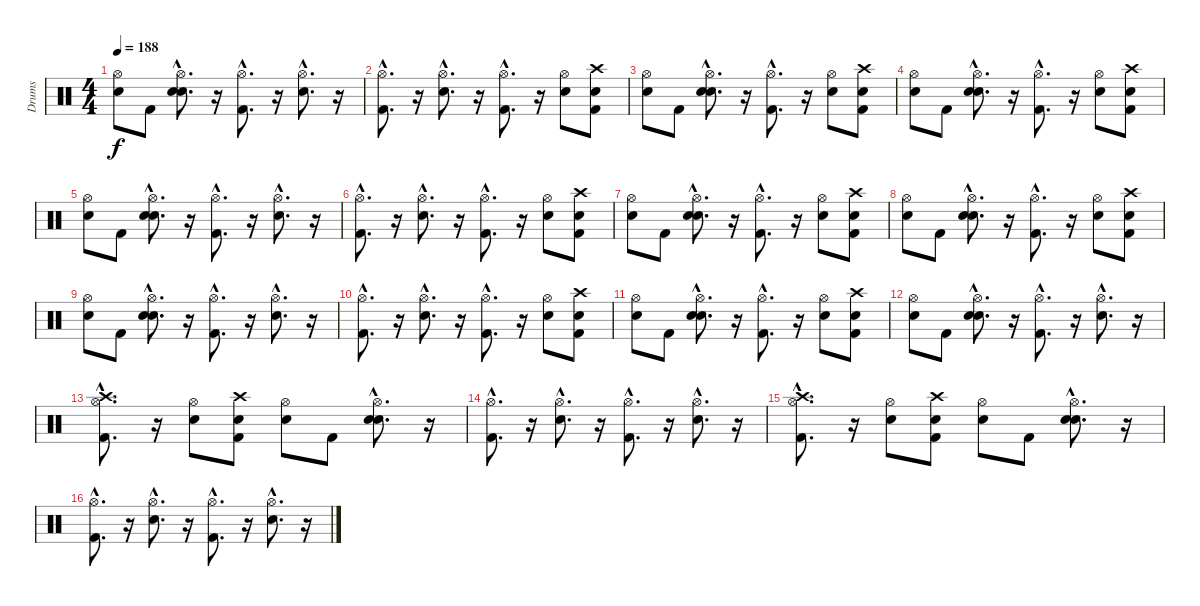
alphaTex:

\track ("Drums" "Drums") {instrument percussion}
\staff {score}
\articulation defaults
\ts (4 4)
\tempo 188
\clef neutral
\ks c
("Snare (hit)" "Hi-Hat (open)").8{dy f} "Kick (hit) 2".8 ("Snare (hit)"{hac} "Snare (hit) 2"{hac} "Hi-Hat (open)"{hac}).8{d} r.16 ("Kick (hit) 2"{hac} "Hi-Hat (open)"{hac}).8{d} r.16 ("Snare (hit) 2"{hac} "Hi-Hat (open)"{hac}).8{d} r.16 |
("Kick (hit) 2"{hac} "Hi-Hat (open)"{hac}).8{d} r.16 ("Snare (hit) 2"{hac} "Hi-Hat (open)"{hac}).8{d} r.16 ("Kick (hit) 2"{hac} "Hi-Hat (open)"{hac}).8{d} r.16 ("Snare (hit) 2" "Hi-Hat (open)").8 ("Snare (hit)" "Kick (hit) 2" "Crash high (hit)").8 |
("Snare (hit)" "Hi-Hat (open)").8 "Kick (hit) 2".8 ("Snare (hit)"{hac} "Snare (hit) 2"{hac} "Hi-Hat (open)"{hac}).8{d} r.16 ("Kick (hit) 2"{hac} "Hi-Hat (open)"{hac}).8{d} r.16 ("Snare (hit) 2" "Hi-Hat (open)").8 ("Snare (hit)" "Kick (hit) 2" "Crash high (hit)").8 |
("Snare (hit)" "Hi-Hat (open)").8 "Kick (hit) 2".8 ("Snare (hit)"{hac} "Snare (hit) 2"{hac} "Hi-Hat (open)"{hac}).8{d} r.16 ("Kick (hit) 2"{hac} "Hi-Hat (open)"{hac}).8{d} r.16 ("Snare (hit) 2" "Hi-Hat (open)").8 ("Snare (hit)" "Kick (hit) 2" "Crash high (hit)").8 |
("Snare (hit)" "Hi-Hat (open)").8 "Kick (hit) 2".8 ("Snare (hit)"{hac} "Snare (hit) 2"{hac} "Hi-Hat (open)"{hac}).8{d} r.16 ("Kick (hit) 2"{hac} "Hi-Hat (open)"{hac}).8{d} r.16 ("Snare (hit) 2"{hac} "Hi-Hat (open)"{hac}).8{d} r.16 |
("Kick (hit) 2"{hac} "Hi-Hat (open)"{hac}).8{d} r.16 ("Snare (hit) 2"{hac} "Hi-Hat (open)"{hac}).8{d} r.16 ("Kick (hit) 2"{hac} "Hi-Hat (open)"{hac}).8{d} r.16 ("Snare (hit) 2" "Hi-Hat (open)").8 ("Snare (hit)" "Kick (hit) 2" "Crash high (hit)").8 |
("Snare (hit)" "Hi-Hat (open)").8 "Kick (hit) 2".8 ("Snare (hit)"{hac} "Snare (hit) 2"{hac} "Hi-Hat (open)"{hac}).8{d} r.16 ("Kick (hit) 2"{hac} "Hi-Hat (open)"{hac}).8{d} r.16 ("Snare (hit) 2" "Hi-Hat (open)").8 ("Snare (hit)" "Kick (hit) 2" "Crash high (hit)").8 |
("Snare (hit)" "Hi-Hat (open)").8 "Kick (hit) 2".8 ("Snare (hit)"{hac} "Snare (hit) 2"{hac} "Hi-Hat (open)"{hac}).8{d} r.16 ("Kick (hit) 2"{hac} "Hi-Hat (open)"{hac}).8{d} r.16 ("Snare (hit) 2" "Hi-Hat (open)").8 ("Snare (hit)" "Kick (hit) 2" "Crash high (hit)").8 |
("Snare (hit)" "Hi-Hat (open)").8 "Kick (hit) 2".8 ("Snare (hit)"{hac} "Snare (hit) 2"{hac} "Hi-Hat (open)"{hac}).8{d} r.16 ("Kick (hit) 2"{hac} "Hi-Hat (open)"{hac}).8{d} r.16 ("Snare (hit) 2"{hac} "Hi-Hat (open)"{hac}).8{d} r.16 |
("Kick (hit) 2"{hac} "Hi-Hat (open)"{hac}).8{d} r.16 ("Snare (hit) 2"{hac} "Hi-Hat (open)"{hac}).8{d} r.16 ("Kick (hit) 2"{hac} "Hi-Hat (open)"{hac}).8{d} r.16 ("Snare (hit) 2" "Hi-Hat (open)").8 ("Snare (hit)" "Kick (hit) 2" "Crash high (hit)").8 |
("Snare (hit)" "Hi-Hat (open)").8 "Kick (hit) 2".8 ("Snare (hit)"{hac} "Snare (hit) 2"{hac} "Hi-Hat (open)"{hac}).8{d} r.16 ("Kick (hit) 2"{hac} "Hi-Hat (open)"{hac}).8{d} r.16 ("Snare (hit) 2" "Hi-Hat (open)").8 ("Snare (hit)" "Kick (hit) 2" "Crash high (hit)").8 |
("Snare (hit)" "Hi-Hat (open)").8 "Kick (hit) 2".8 ("Snare (hit)"{hac} "Snare (hit) 2"{hac} "Hi-Hat (open)"{hac}).8{d} r.16 ("Kick (hit) 2"{hac} "Hi-Hat (open)"{hac}).8{d} r.16 ("Snare (hit) 2"{hac} "Hi-Hat (open)"{hac}).8{d} r.16 |
("Kick (hit) 2"{hac} "Hi-Hat (open)"{hac} "Crash high (hit)"{hac}).8{d} r.16 ("Snare (hit) 2" "Hi-Hat (open)").8 ("Snare (hit)" "Kick (hit) 2" "Crash high (hit)").8 ("Snare (hit)" "Hi-Hat (open)").8 "Kick (hit) 2".8 ("Snare (hit)"{hac} "Snare (hit) 2"{hac} "Hi-Hat (open)"{hac}).8{d} r.16 |
("Kick (hit) 2"{hac} "Hi-Hat (open)"{hac}).8{d} r.16 ("Snare (hit) 2"{hac} "Hi-Hat (open)"{hac}).8{d} r.16 ("Kick (hit) 2"{hac} "Hi-Hat (open)"{hac}).8{d} r.16 ("Snare (hit) 2"{hac} "Hi-Hat (open)"{hac}).8{d} r.16 |
("Kick (hit) 2"{hac} "Hi-Hat (open)"{hac} "Crash high (hit)"{hac}).8{d} r.16 ("Snare (hit) 2" "Hi-Hat (open)").8 ("Snare (hit)" "Kick (hit) 2" "Crash high (hit)").8 ("Snare (hit)" "Hi-Hat (open)").8 "Kick (hit) 2".8 ("Snare (hit)"{hac} "Snare (hit) 2"{hac} "Hi-Hat (open)"{hac}).8{d} r.16 |
("Kick (hit) 2"{hac} "Hi-Hat (open)"{hac}).8{d} r.16 ("Snare (hit) 2"{hac} "Hi-Hat (open)"{hac}).8{d} r.16 ("Kick (hit) 2"{hac} "Hi-Hat (open)"{hac}).8{d} r.16 ("Snare (hit) 2"{hac} "Hi-Hat (open)"{hac}).8{d} r.16
